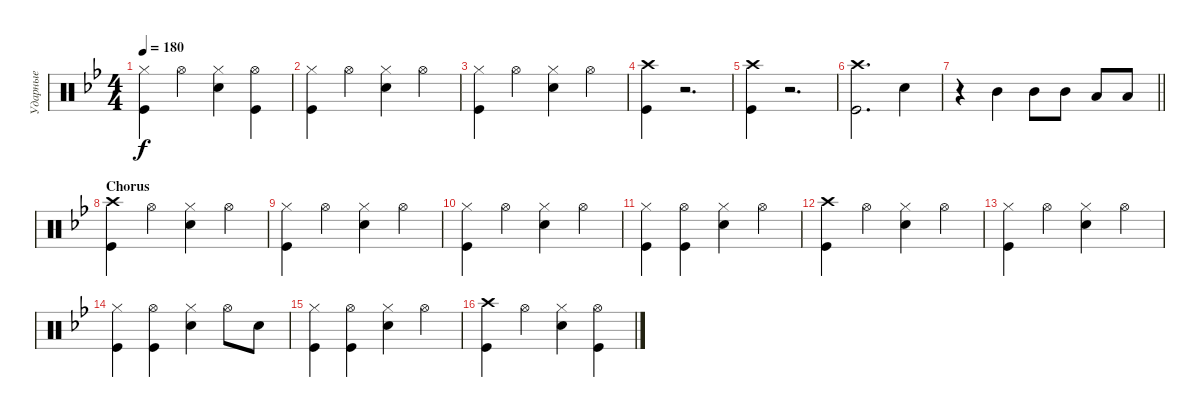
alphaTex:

\track ("Ударные" "Ударные") {instrument percussion}
\staff {score}
\articulation defaults
\ts (4 4)
\tempo 180
\clef neutral
\ks gminor
("Hi-Hat (closed)" "Kick (hit)").4{dy f} "Hi-Hat (open)".4 ("Hi-Hat (closed)" "Snare (hit) 2").4 ("Hi-Hat (open)" "Kick (hit)").4 |
("Hi-Hat (closed)" "Kick (hit)").4 "Hi-Hat (open)".4 ("Hi-Hat (closed)" "Snare (hit) 2").4 "Hi-Hat (open)".4 |
("Hi-Hat (closed)" "Kick (hit)").4 "Hi-Hat (open)".4 ("Hi-Hat (closed)" "Snare (hit) 2").4 "Hi-Hat (open)".4 |
("Kick (hit)" "Crash high (hit)").4 r.2{d} |
("Kick (hit)" "Crash high (hit)").4 r.2{d} |
("Kick (hit)" "Crash high (hit)").2{d} "Snare (hit) 2".4 |
\barLineRight lightlight
r.4 "Mid Tom (hit)".4 "Mid Tom (hit)".8 "Mid Tom (hit)".8 "Low Tom (hit)".8 "Low Tom (hit)".8 |
\section ("" "Chorus")
("Crash high (hit)" "Kick (hit)").4 "Hi-Hat (open)".4 ("Hi-Hat (closed)" "Snare (hit) 2").4 "Hi-Hat (open)".4 |
("Hi-Hat (closed)" "Kick (hit)").4 "Hi-Hat (open)".4 ("Hi-Hat (closed)" "Snare (hit) 2").4 "Hi-Hat (open)".4 |
("Hi-Hat (closed)" "Kick (hit)").4 "Hi-Hat (open)".4 ("Hi-Hat (closed)" "Snare (hit) 2").4 "Hi-Hat (open)".4 |
("Hi-Hat (closed)" "Kick (hit)").4 ("Hi-Hat (open)" "Kick (hit)").4 ("Hi-Hat (closed)" "Snare (hit) 2").4 "Hi-Hat (open)".4 |
("Crash high (hit)" "Kick (hit)").4 "Hi-Hat (open)".4 ("Hi-Hat (closed)" "Snare (hit) 2").4 "Hi-Hat (open)".4 |
("Hi-Hat (closed)" "Kick (hit)").4 "Hi-Hat (open)".4 ("Hi-Hat (closed)" "Snare (hit) 2").4 "Hi-Hat (open)".4 |
("Kick (hit)" "Hi-Hat (closed)").4 ("Hi-Hat (open)" "Kick (hit)").4 ("Hi-Hat (closed)" "Snare (hit) 2").4 "Hi-Hat (open)".8 "Snare (hit) 2".8 |
("Hi-Hat (closed)" "Kick (hit)").4 ("Hi-Hat (open)" "Kick (hit)").4 ("Hi-Hat (closed)" "Snare (hit) 2").4 "Hi-Hat (open)".4 |
("Crash high (hit)" "Kick (hit)").4 "Hi-Hat (open)".4 ("Hi-Hat (closed)" "Snare (hit) 2").4 ("Hi-Hat (open)" "Kick (hit)").4
